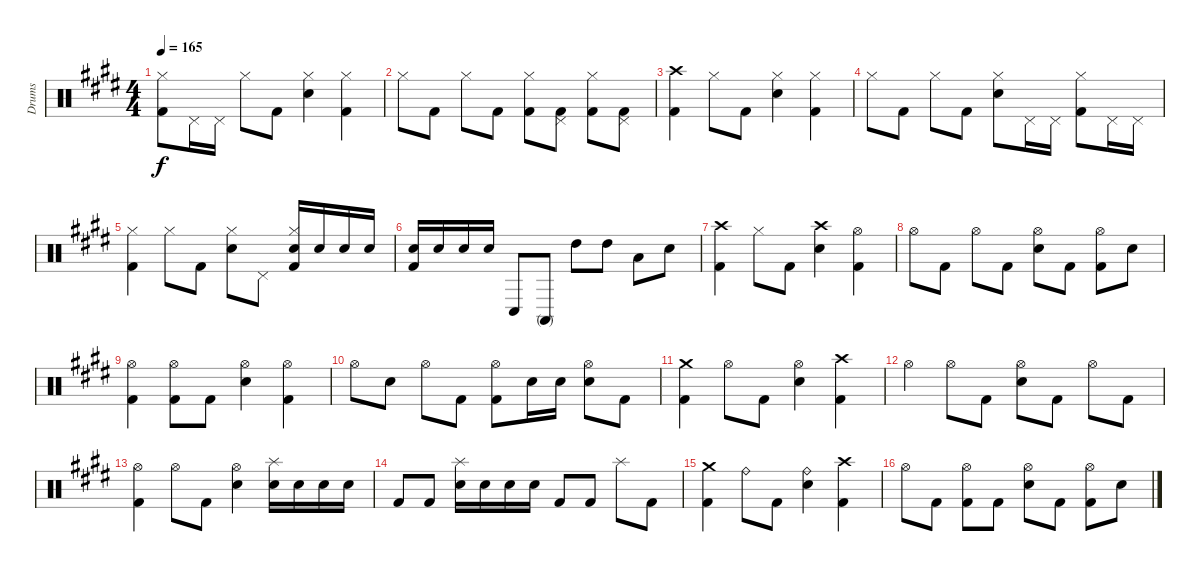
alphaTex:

\track ("Drums" "Drums") {instrument percussion}
\staff {score}
\articulation defaults
\ts (4 4)
\tempo 165
\clef neutral
\ks e
("Kick (hit) 2" "Hi-Hat (closed)").8{dy f} "Pedal Hi-Hat (hit)".16 "Pedal Hi-Hat (hit)".16 "Hi-Hat (closed)".8 "Kick (hit) 2".8 ("Electric Snare (hit)" "Hi-Hat (closed)").4 ("Kick (hit) 2" "Hi-Hat (closed)").4 |
"Hi-Hat (closed)".8 "Kick (hit) 2".8 "Hi-Hat (closed)".8 "Kick (hit) 2".8 ("Kick (hit) 2" "Hi-Hat (closed)").8 ("Kick (hit) 2" "Pedal Hi-Hat (hit)").8 ("Kick (hit) 2" "Hi-Hat (closed)").8 ("Kick (hit) 2" "Pedal Hi-Hat (hit)").8 |
("Kick (hit) 2" "Crash high (hit)").4 "Hi-Hat (closed)".8 "Kick (hit) 2".8 ("Electric Snare (hit)" "Hi-Hat (closed)").4 ("Kick (hit) 2" "Hi-Hat (closed)").4 |
"Hi-Hat (closed)".8 "Kick (hit) 2".8 "Hi-Hat (closed)".8 "Kick (hit) 2".8 ("Electric Snare (hit)" "Hi-Hat (closed)").8 "Pedal Hi-Hat (hit)".16 "Pedal Hi-Hat (hit)".16 ("Hi-Hat (closed)" "Kick (hit) 2").8 "Pedal Hi-Hat (hit)".16 "Pedal Hi-Hat (hit)".16 |
("Hi-Hat (closed)" "Kick (hit) 2").4 "Hi-Hat (closed)".8 "Kick (hit) 2".8 ("Electric Snare (hit)" "Hi-Hat (closed)").8 "Pedal Hi-Hat (hit)".8 ("Kick (hit) 2" "Electric Snare (hit)" "Hi-Hat (closed)").16 "Electric Snare (hit)".16 "Electric Snare (hit)".16 "Electric Snare (hit)".16 |
("Kick (hit) 2" "Electric Snare (hit)").16 "Electric Snare (hit)".16 "Electric Snare (hit)".16 "Electric Snare (hit)".16 "Conga low (hit)".8 "Conga high (mute)".8 "High Tom (hit)".8 "High Tom (hit)".8 "Low Tom (hit)".8 "Electric Snare (hit)".8 |
("Kick (hit) 2" "Crash high (hit)").4 "Hi-Hat (closed)".8 "Kick (hit) 2".8 ("Electric Snare (hit)" "Crash high (hit)").4 ("Kick (hit) 2" "Hi-Hat (open)").4 |
"Hi-Hat (open)".8 "Kick (hit) 2".8 "Hi-Hat (open)".8 "Kick (hit) 2".8 ("Electric Snare (hit)" "Hi-Hat (open)").8 "Kick (hit) 2".8 ("Kick (hit) 2" "Hi-Hat (open)").8 "Electric Snare (hit)".8 |
("Hi-Hat (open)" "Kick (hit) 2").4 ("Hi-Hat (open)" "Kick (hit) 2").8 "Kick (hit) 2".8 ("Electric Snare (hit)" "Hi-Hat (open)").4 ("Kick (hit) 2" "Hi-Hat (open)").4 |
"Hi-Hat (open)".8 "Electric Snare (hit)".8 "Hi-Hat (open)".8 "Kick (hit) 2".8 ("Hi-Hat (open)" "Kick (hit) 2").8 "Electric Snare (hit)".16 "Electric Snare (hit)".16 ("Electric Snare (hit)" "Hi-Hat (open)").8 "Kick (hit) 2".8 |
("Crash medium (hit)" "Kick (hit) 2").4 "Hi-Hat (open)".8 "Kick (hit) 2".8 ("Hi-Hat (open)" "Electric Snare (hit)").4 ("Crash high (hit)" "Kick (hit) 2").4 |
"Hi-Hat (open)".4 "Hi-Hat (open)".8 "Kick (hit) 2".8 ("Electric Snare (hit)" "Hi-Hat (open)").8 "Kick (hit) 2".8 "Hi-Hat (open)".8 "Kick (hit) 2".8 |
("Hi-Hat (open)" "Kick (hit) 2").4 "Hi-Hat (open)".8 "Kick (hit) 2".8 ("Electric Snare (hit)" "Hi-Hat (open)").4 ("Splash (hit)" "Electric Snare (hit)").16 "Electric Snare (hit)".16 "Electric Snare (hit)".16 "Electric Snare (hit)".16 |
"Kick (hit) 2".8 "Kick (hit) 2".8 ("Electric Snare (hit)" "Splash (hit)").16 "Electric Snare (hit)".16 "Electric Snare (hit)".16 "Electric Snare (hit)".16 "Kick (hit) 2".8 "Kick (hit) 2".8 "Splash (hit)".8 "Kick (hit) 2".8 |
("Crash medium (hit)" "Kick (hit) 2").4 "Ride (bell)".8 "Kick (hit) 2".8 ("Electric Snare (hit)" "Ride (bell)").4 ("Kick (hit) 2" "Crash high (hit)").4 |
"Hi-Hat (open)".8 "Kick (hit) 2".8 ("Kick (hit) 2" "Hi-Hat (open)").8 "Kick (hit) 2".8 ("Electric Snare (hit)" "Hi-Hat (open)").8 "Kick (hit) 2".8 ("Kick (hit) 2" "Hi-Hat (open)").8 "Electric Snare (hit)".8
